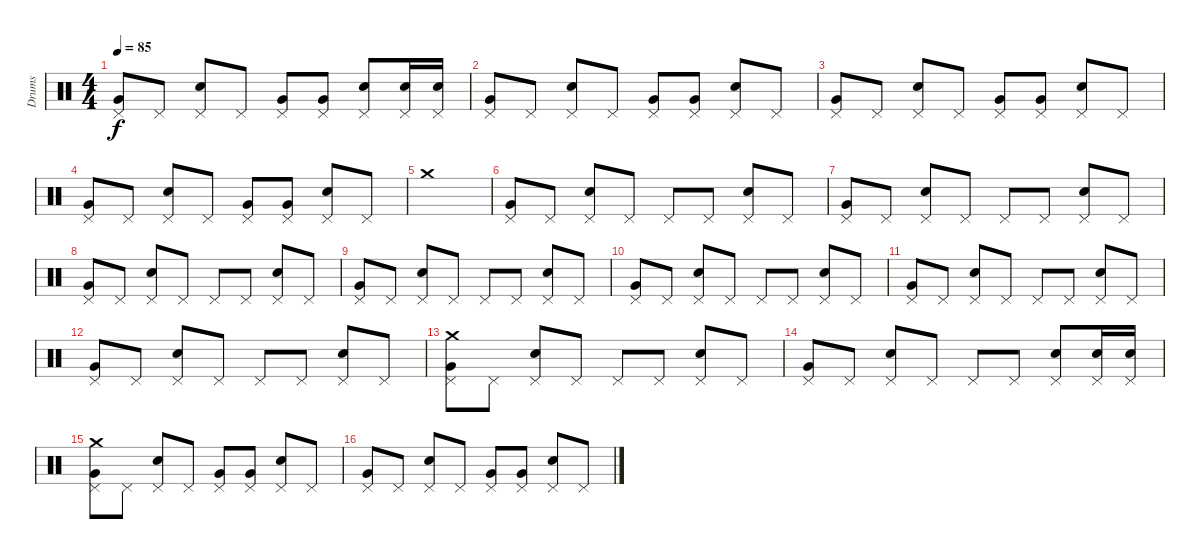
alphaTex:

\track ("Drums" "Drums") {instrument percussion}
\staff {score}
\articulation defaults
\ts (4 4)
\tempo 85
\clef neutral
\ks c
("Pedal Hi-Hat (hit)" "Very Low Tom (hit)").8{dy f} "Pedal Hi-Hat (hit)".8 ("Pedal Hi-Hat (hit)" "Snare (hit) 2").8 "Pedal Hi-Hat (hit)".8 ("Pedal Hi-Hat (hit)" "Very Low Tom (hit)").8 ("Pedal Hi-Hat (hit)" "Very Low Tom (hit)").8 ("Pedal Hi-Hat (hit)" "Snare (hit) 2").8 ("Pedal Hi-Hat (hit)" "Electric Snare (hit)").16 ("Pedal Hi-Hat (hit)" "Electric Snare (hit)").16 |
("Pedal Hi-Hat (hit)" "Very Low Tom (hit)").8 "Pedal Hi-Hat (hit)".8 ("Pedal Hi-Hat (hit)" "Snare (hit) 2").8 "Pedal Hi-Hat (hit)".8 ("Pedal Hi-Hat (hit)" "Very Low Tom (hit)").8 ("Pedal Hi-Hat (hit)" "Very Low Tom (hit)").8 ("Pedal Hi-Hat (hit)" "Snare (hit) 2").8 "Pedal Hi-Hat (hit)".8 |
("Pedal Hi-Hat (hit)" "Very Low Tom (hit)").8 "Pedal Hi-Hat (hit)".8 ("Pedal Hi-Hat (hit)" "Snare (hit) 2").8 "Pedal Hi-Hat (hit)".8 ("Pedal Hi-Hat (hit)" "Very Low Tom (hit)").8 ("Pedal Hi-Hat (hit)" "Very Low Tom (hit)").8 ("Pedal Hi-Hat (hit)" "Snare (hit) 2").8 "Pedal Hi-Hat (hit)".8 |
("Pedal Hi-Hat (hit)" "Very Low Tom (hit)").8 "Pedal Hi-Hat (hit)".8 ("Pedal Hi-Hat (hit)" "Snare (hit) 2").8 "Pedal Hi-Hat (hit)".8 ("Pedal Hi-Hat (hit)" "Very Low Tom (hit)").8 ("Pedal Hi-Hat (hit)" "Very Low Tom (hit)").8 ("Pedal Hi-Hat (hit)" "Snare (hit) 2").8 "Pedal Hi-Hat (hit)".8 |
"Crash medium (hit)".1 |
("Pedal Hi-Hat (hit)" "Very Low Tom (hit)").8 "Pedal Hi-Hat (hit)".8 ("Pedal Hi-Hat (hit)" "Snare (hit) 2").8 "Pedal Hi-Hat (hit)".8 "Pedal Hi-Hat (hit)".8 "Pedal Hi-Hat (hit)".8 ("Pedal Hi-Hat (hit)" "Snare (hit) 2").8 "Pedal Hi-Hat (hit)".8 |
("Pedal Hi-Hat (hit)" "Very Low Tom (hit)").8 "Pedal Hi-Hat (hit)".8 ("Pedal Hi-Hat (hit)" "Snare (hit) 2").8 "Pedal Hi-Hat (hit)".8 "Pedal Hi-Hat (hit)".8 "Pedal Hi-Hat (hit)".8 ("Pedal Hi-Hat (hit)" "Snare (hit) 2").8 "Pedal Hi-Hat (hit)".8 |
("Pedal Hi-Hat (hit)" "Very Low Tom (hit)").8 "Pedal Hi-Hat (hit)".8 ("Pedal Hi-Hat (hit)" "Snare (hit) 2").8 "Pedal Hi-Hat (hit)".8 "Pedal Hi-Hat (hit)".8 "Pedal Hi-Hat (hit)".8 ("Pedal Hi-Hat (hit)" "Snare (hit) 2").8 "Pedal Hi-Hat (hit)".8 |
("Pedal Hi-Hat (hit)" "Very Low Tom (hit)").8 "Pedal Hi-Hat (hit)".8 ("Pedal Hi-Hat (hit)" "Snare (hit) 2").8 "Pedal Hi-Hat (hit)".8 "Pedal Hi-Hat (hit)".8 "Pedal Hi-Hat (hit)".8 ("Pedal Hi-Hat (hit)" "Snare (hit) 2").8 "Pedal Hi-Hat (hit)".8 |
("Pedal Hi-Hat (hit)" "Very Low Tom (hit)").8 "Pedal Hi-Hat (hit)".8 ("Pedal Hi-Hat (hit)" "Snare (hit) 2").8 "Pedal Hi-Hat (hit)".8 "Pedal Hi-Hat (hit)".8 "Pedal Hi-Hat (hit)".8 ("Pedal Hi-Hat (hit)" "Snare (hit) 2").8 "Pedal Hi-Hat (hit)".8 |
("Pedal Hi-Hat (hit)" "Very Low Tom (hit)").8 "Pedal Hi-Hat (hit)".8 ("Pedal Hi-Hat (hit)" "Snare (hit) 2").8 "Pedal Hi-Hat (hit)".8 "Pedal Hi-Hat (hit)".8 "Pedal Hi-Hat (hit)".8 ("Pedal Hi-Hat (hit)" "Snare (hit) 2").8 "Pedal Hi-Hat (hit)".8 |
("Pedal Hi-Hat (hit)" "Very Low Tom (hit)").8 "Pedal Hi-Hat (hit)".8 ("Pedal Hi-Hat (hit)" "Snare (hit) 2").8 "Pedal Hi-Hat (hit)".8 "Pedal Hi-Hat (hit)".8 "Pedal Hi-Hat (hit)".8 ("Pedal Hi-Hat (hit)" "Snare (hit) 2").8 "Pedal Hi-Hat (hit)".8 |
("Pedal Hi-Hat (hit)" "Very Low Tom (hit)" "Crash medium (hit)").8 "Pedal Hi-Hat (hit)".8 ("Pedal Hi-Hat (hit)" "Snare (hit) 2").8 "Pedal Hi-Hat (hit)".8 "Pedal Hi-Hat (hit)".8 "Pedal Hi-Hat (hit)".8 ("Pedal Hi-Hat (hit)" "Snare (hit) 2").8 "Pedal Hi-Hat (hit)".8 |
("Pedal Hi-Hat (hit)" "Very Low Tom (hit)").8 "Pedal Hi-Hat (hit)".8 ("Pedal Hi-Hat (hit)" "Snare (hit) 2").8 "Pedal Hi-Hat (hit)".8 "Pedal Hi-Hat (hit)".8 "Pedal Hi-Hat (hit)".8 ("Pedal Hi-Hat (hit)" "Snare (hit) 2").8 ("Pedal Hi-Hat (hit)" "Electric Snare (hit)").16 ("Pedal Hi-Hat (hit)" "Electric Snare (hit)").16 |
("Pedal Hi-Hat (hit)" "Very Low Tom (hit)" "Crash medium (hit)").8 "Pedal Hi-Hat (hit)".8 ("Pedal Hi-Hat (hit)" "Snare (hit) 2").8 "Pedal Hi-Hat (hit)".8 ("Pedal Hi-Hat (hit)" "Very Low Tom (hit)").8 ("Pedal Hi-Hat (hit)" "Very Low Tom (hit)").8 ("Pedal Hi-Hat (hit)" "Snare (hit) 2").8 "Pedal Hi-Hat (hit)".8 |
("Pedal Hi-Hat (hit)" "Very Low Tom (hit)").8 "Pedal Hi-Hat (hit)".8 ("Pedal Hi-Hat (hit)" "Snare (hit) 2").8 "Pedal Hi-Hat (hit)".8 ("Pedal Hi-Hat (hit)" "Very Low Tom (hit)").8 ("Pedal Hi-Hat (hit)" "Very Low Tom (hit)").8 ("Pedal Hi-Hat (hit)" "Snare (hit) 2").8 "Pedal Hi-Hat (hit)".8
